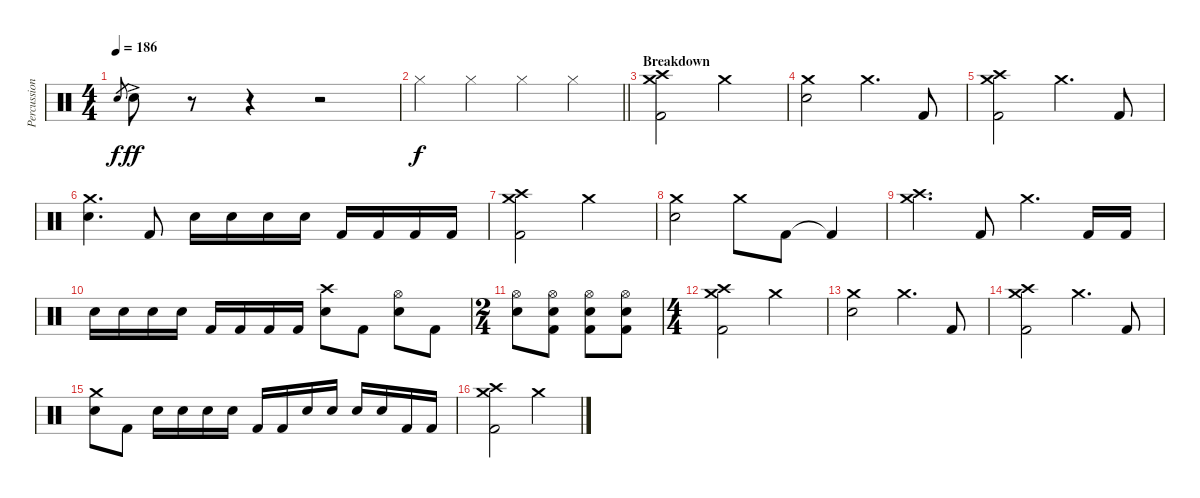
\track ("Percussion" "Percussion") {instrument percussion}
\staff {score}
\articulation defaults
\ts (4 4)
\tempo 186
\clef neutral
\ks c "Electric Snare (hit)".8{gr dy f} "Electric Snare (hit)"{ac}.8{dy ff}
r.8 r.4 r.2 |
\barLineRight lightlight "Hi-Hat (closed)".4{dy f} "Hi-Hat (closed)".4 "Hi-Hat (closed)".4 "Hi-Hat (closed)".4
|
\section ("" "Breakdown")
("Crash medium (hit)" "Crash high (hit)" "Kick (hit) 2").2 "Crash medium (hit)".2 |
("Crash medium (hit)" "Electric Snare (hit)").2 "Crash medium (hit)".4{d} "Kick (hit) 2".8 |
("Crash medium (hit)" "Crash high (hit)" "Kick (hit) 2").2 "Crash medium (hit)".4{d} "Kick (hit) 2".8 |
("Crash medium (hit)" "Electric Snare (hit)").4{d} "Kick (hit) 2".8 "Electric Snare (hit)".16 "Electric Snare (hit)".16 "Electric Snare (hit)".16 "Electric Snare (hit)".16 "Kick (hit) 2".16 "Kick (hit) 2".16 "Kick (hit) 2".16 "Kick (hit) 2".16 |
("Crash medium (hit)" "Crash high (hit)" "Kick (hit) 2").2 "Crash medium (hit)".2 |
("Crash medium (hit)" "Electric Snare (hit)").2 "Crash medium (hit)".8 "Kick (hit) 2".8 "Kick (hit) 2"{t}.4 |
("Crash medium (hit)" "Crash high (hit)").4{d} "Kick (hit) 2".8 "Crash medium (hit)".4{d} "Kick (hit) 2".16 "Kick (hit) 2".16 |
"Electric Snare (hit)".16 "Electric Snare (hit)".16 "Electric Snare (hit)".16 "Electric Snare (hit)".16 "Kick (hit) 2".16 "Kick (hit) 2".16 "Kick (hit) 2".16 "Kick (hit) 2".16 ("Crash high (hit)" "Electric Snare (hit)").8 "Kick (hit) 2".8 ("Hi-Hat (open)" "Electric Snare (hit)").8 "Kick (hit) 2".8 |
\ts (2 4)
("Hi-Hat (open)" "Electric Snare (hit)").8 ("Hi-Hat (open)" "Electric Snare (hit)" "Kick (hit) 2").8 ("Hi-Hat (open)" "Electric Snare (hit)" "Kick (hit) 2").8 ("Hi-Hat (open)" "Electric Snare (hit)" "Kick (hit) 2").8 |
\ts (4 4)
("Crash medium (hit)" "Crash high (hit)" "Kick (hit) 2").2 "Crash medium (hit)".2 |
("Crash medium (hit)" "Electric Snare (hit)").2 "Crash medium (hit)".4{d} "Kick (hit) 2".8 |
("Crash medium (hit)" "Crash high (hit)" "Kick (hit) 2").2 "Crash medium (hit)".4{d} "Kick (hit) 2".8 |
("Crash medium (hit)" "Electric Snare (hit)").8 "Kick (hit) 2".8 "Electric Snare (hit)".16 "Electric Snare (hit)".16 "Electric Snare (hit)".16 "Electric Snare (hit)".16 "Kick (hit) 2".16 "Kick (hit) 2".16 "Electric Snare (hit)".16 "Electric Snare (hit)".16 "Electric Snare (hit)".16 "Electric Snare (hit)".16 "Kick (hit) 2".16 "Kick (hit) 2".16 |
("Crash medium (hit)" "Crash high (hit)" "Kick (hit) 2").2 "Crash medium (hit)".2
